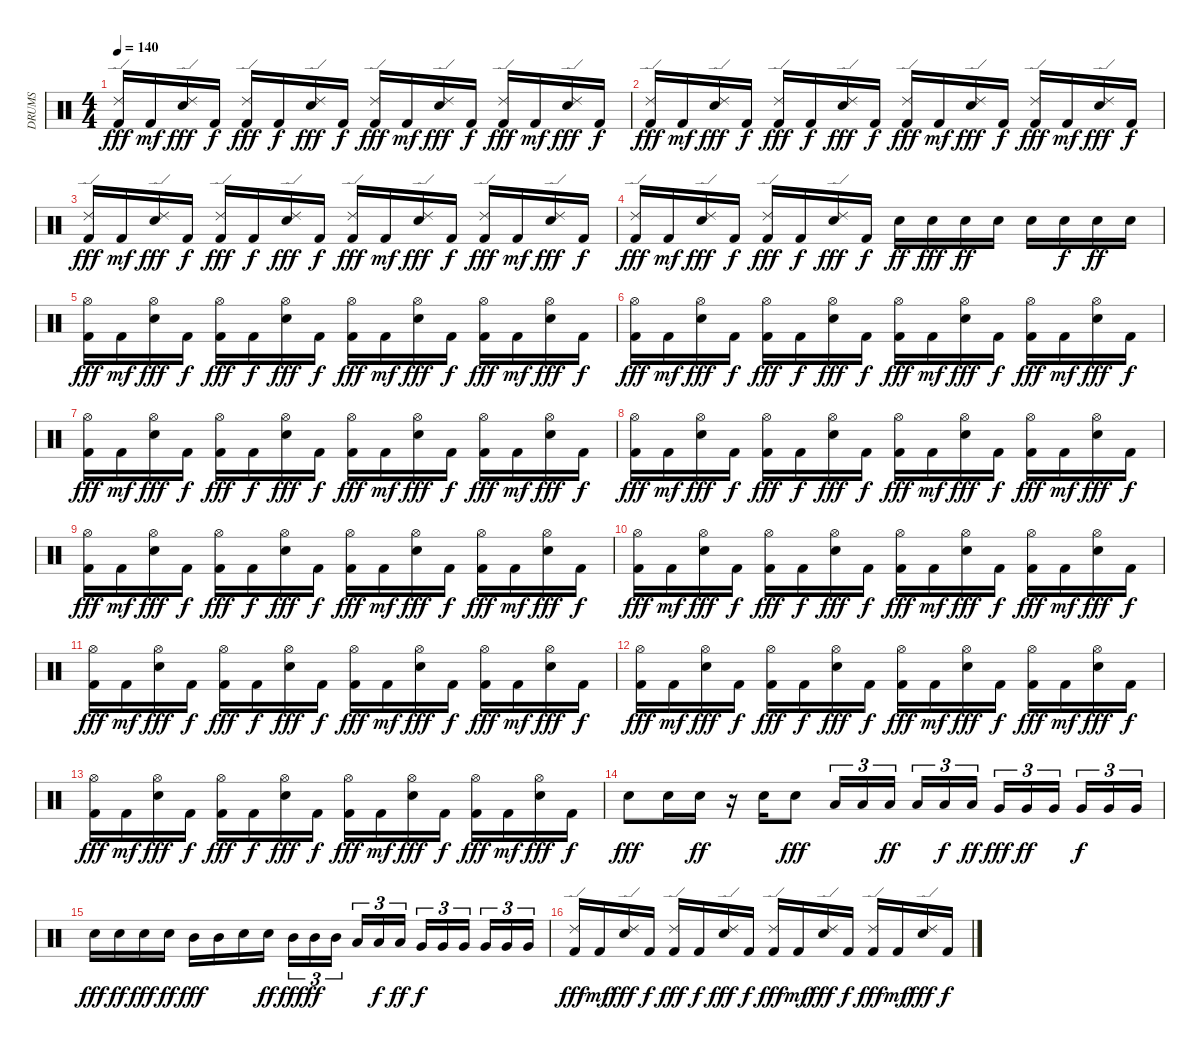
\track ("DRUMS" "DRUMS") {instrument percussion}
\staff {score}
\articulation defaults
\ts (4 4)
\tempo 140
\clef neutral
\ks c
("Ride (edge) 2" "Kick (hit) 2").16{dy fff} "Kick (hit) 2".16{dy mf} ("Ride (edge) 2" "Electric Snare (hit)").16{dy fff} "Kick (hit) 2".16{dy f} ("Ride (edge) 2" "Kick (hit) 2").16{dy fff} "Kick (hit) 2".16{dy f} ("Ride (edge) 2" "Electric Snare (hit)").16{dy fff} "Kick (hit) 2".16{dy f} ("Ride (edge) 2" "Kick (hit) 2").16{dy fff} "Kick (hit) 2".16{dy mf} ("Ride (edge) 2" "Electric Snare (hit)").16{dy fff} "Kick (hit) 2".16{dy f} ("Ride (edge) 2" "Kick (hit) 2").16{dy fff} "Kick (hit) 2".16{dy mf} ("Electric Snare (hit)" "Ride (edge) 2").16{dy fff} "Kick (hit) 2".16{dy f} |
("Ride (edge) 2" "Kick (hit) 2").16{dy fff} "Kick (hit) 2".16{dy mf} ("Ride (edge) 2" "Electric Snare (hit)").16{dy fff} "Kick (hit) 2".16{dy f} ("Ride (edge) 2" "Kick (hit) 2").16{dy fff} "Kick (hit) 2".16{dy f} ("Ride (edge) 2" "Electric Snare (hit)").16{dy fff} "Kick (hit) 2".16{dy f} ("Ride (edge) 2" "Kick (hit) 2").16{dy fff} "Kick (hit) 2".16{dy mf} ("Ride (edge) 2" "Electric Snare (hit)").16{dy fff} "Kick (hit) 2".16{dy f} ("Ride (edge) 2" "Kick (hit) 2").16{dy fff} "Kick (hit) 2".16{dy mf} ("Electric Snare (hit)" "Ride (edge) 2").16{dy fff} "Kick (hit) 2".16{dy f} |
("Ride (edge) 2" "Kick (hit) 2").16{dy fff} "Kick (hit) 2".16{dy mf} ("Ride (edge) 2" "Electric Snare (hit)").16{dy fff} "Kick (hit) 2".16{dy f} ("Ride (edge) 2" "Kick (hit) 2").16{dy fff} "Kick (hit) 2".16{dy f} ("Ride (edge) 2" "Electric Snare (hit)").16{dy fff} "Kick (hit) 2".16{dy f} ("Ride (edge) 2" "Kick (hit) 2").16{dy fff} "Kick (hit) 2".16{dy mf} ("Ride (edge) 2" "Electric Snare (hit)").16{dy fff} "Kick (hit) 2".16{dy f} ("Ride (edge) 2" "Kick (hit) 2").16{dy fff} "Kick (hit) 2".16{dy mf} ("Electric Snare (hit)" "Ride (edge) 2").16{dy fff} "Kick (hit) 2".16{dy f} |
("Ride (edge) 2" "Kick (hit) 2").16{dy fff} "Kick (hit) 2".16{dy mf} ("Ride (edge) 2" "Electric Snare (hit)").16{dy fff} "Kick (hit) 2".16{dy f} ("Ride (edge) 2" "Kick (hit) 2").16{dy fff} "Kick (hit) 2".16{dy f} ("Ride (edge) 2" "Electric Snare (hit)").16{dy fff} "Kick (hit) 2".16{dy f} "Electric Snare (hit)".16{dy ff} "Electric Snare (hit)".16{dy fff} "Electric Snare (hit)".16{dy ff} "Electric Snare (hit)".16 "Electric Snare (hit)".16 "Electric Snare (hit)".16{dy f} "Electric Snare (hit)".16{dy ff} "Electric Snare (hit)".16 |
("Hi-Hat (open)" "Kick (hit) 2").16{dy fff} "Kick (hit) 2".16{dy mf} ("Hi-Hat (open)" "Electric Snare (hit)").16{dy fff} "Kick (hit) 2".16{dy f} ("Hi-Hat (open)" "Kick (hit) 2").16{dy fff} "Kick (hit) 2".16{dy f} ("Hi-Hat (open)" "Electric Snare (hit)").16{dy fff} "Kick (hit) 2".16{dy f} ("Hi-Hat (open)" "Kick (hit) 2").16{dy fff} "Kick (hit) 2".16{dy mf} ("Hi-Hat (open)" "Electric Snare (hit)").16{dy fff} "Kick (hit) 2".16{dy f} ("Hi-Hat (open)" "Kick (hit) 2").16{dy fff} "Kick (hit) 2".16{dy mf} ("Electric Snare (hit)" "Hi-Hat (open)").16{dy fff} "Kick (hit) 2".16{dy f} |
("Hi-Hat (open)" "Kick (hit) 2").16{dy fff} "Kick (hit) 2".16{dy mf} ("Hi-Hat (open)" "Electric Snare (hit)").16{dy fff} "Kick (hit) 2".16{dy f} ("Hi-Hat (open)" "Kick (hit) 2").16{dy fff} "Kick (hit) 2".16{dy f} ("Hi-Hat (open)" "Electric Snare (hit)").16{dy fff} "Kick (hit) 2".16{dy f} ("Hi-Hat (open)" "Kick (hit) 2").16{dy fff} "Kick (hit) 2".16{dy mf} ("Hi-Hat (open)" "Electric Snare (hit)").16{dy fff} "Kick (hit) 2".16{dy f} ("Hi-Hat (open)" "Kick (hit) 2").16{dy fff} "Kick (hit) 2".16{dy mf} ("Electric Snare (hit)" "Hi-Hat (open)").16{dy fff} "Kick (hit) 2".16{dy f} |
("Hi-Hat (open)" "Kick (hit) 2").16{dy fff} "Kick (hit) 2".16{dy mf} ("Hi-Hat (open)" "Electric Snare (hit)").16{dy fff} "Kick (hit) 2".16{dy f} ("Hi-Hat (open)" "Kick (hit) 2").16{dy fff} "Kick (hit) 2".16{dy f} ("Hi-Hat (open)" "Electric Snare (hit)").16{dy fff} "Kick (hit) 2".16{dy f} ("Hi-Hat (open)" "Kick (hit) 2").16{dy fff} "Kick (hit) 2".16{dy mf} ("Hi-Hat (open)" "Electric Snare (hit)").16{dy fff} "Kick (hit) 2".16{dy f} ("Hi-Hat (open)" "Kick (hit) 2").16{dy fff} "Kick (hit) 2".16{dy mf} ("Electric Snare (hit)" "Hi-Hat (open)").16{dy fff} "Kick (hit) 2".16{dy f} |
("Hi-Hat (open)" "Kick (hit) 2").16{dy fff} "Kick (hit) 2".16{dy mf} ("Hi-Hat (open)" "Electric Snare (hit)").16{dy fff} "Kick (hit) 2".16{dy f} ("Hi-Hat (open)" "Kick (hit) 2").16{dy fff} "Kick (hit) 2".16{dy f} ("Hi-Hat (open)" "Electric Snare (hit)").16{dy fff} "Kick (hit) 2".16{dy f} ("Hi-Hat (open)" "Kick (hit) 2").16{dy fff} "Kick (hit) 2".16{dy mf} ("Hi-Hat (open)" "Electric Snare (hit)").16{dy fff} "Kick (hit) 2".16{dy f} ("Hi-Hat (open)" "Kick (hit) 2").16{dy fff} "Kick (hit) 2".16{dy mf} ("Electric Snare (hit)" "Hi-Hat (open)").16{dy fff} "Kick (hit) 2".16{dy f} |
("Hi-Hat (open)" "Kick (hit) 2").16{dy fff} "Kick (hit) 2".16{dy mf} ("Hi-Hat (open)" "Electric Snare (hit)").16{dy fff} "Kick (hit) 2".16{dy f} ("Hi-Hat (open)" "Kick (hit) 2").16{dy fff} "Kick (hit) 2".16{dy f} ("Hi-Hat (open)" "Electric Snare (hit)").16{dy fff} "Kick (hit) 2".16{dy f} ("Hi-Hat (open)" "Kick (hit) 2").16{dy fff} "Kick (hit) 2".16{dy mf} ("Hi-Hat (open)" "Electric Snare (hit)").16{dy fff} "Kick (hit) 2".16{dy f} ("Hi-Hat (open)" "Kick (hit) 2").16{dy fff} "Kick (hit) 2".16{dy mf} ("Electric Snare (hit)" "Hi-Hat (open)").16{dy fff} "Kick (hit) 2".16{dy f} |
("Hi-Hat (open)" "Kick (hit) 2").16{dy fff} "Kick (hit) 2".16{dy mf} ("Hi-Hat (open)" "Electric Snare (hit)").16{dy fff} "Kick (hit) 2".16{dy f} ("Hi-Hat (open)" "Kick (hit) 2").16{dy fff} "Kick (hit) 2".16{dy f} ("Hi-Hat (open)" "Electric Snare (hit)").16{dy fff} "Kick (hit) 2".16{dy f} ("Hi-Hat (open)" "Kick (hit) 2").16{dy fff} "Kick (hit) 2".16{dy mf} ("Hi-Hat (open)" "Electric Snare (hit)").16{dy fff} "Kick (hit) 2".16{dy f} ("Hi-Hat (open)" "Kick (hit) 2").16{dy fff} "Kick (hit) 2".16{dy mf} ("Electric Snare (hit)" "Hi-Hat (open)").16{dy fff} "Kick (hit) 2".16{dy f} |
("Hi-Hat (open)" "Kick (hit) 2").16{dy fff} "Kick (hit) 2".16{dy mf} ("Hi-Hat (open)" "Electric Snare (hit)").16{dy fff} "Kick (hit) 2".16{dy f} ("Hi-Hat (open)" "Kick (hit) 2").16{dy fff} "Kick (hit) 2".16{dy f} ("Hi-Hat (open)" "Electric Snare (hit)").16{dy fff} "Kick (hit) 2".16{dy f} ("Hi-Hat (open)" "Kick (hit) 2").16{dy fff} "Kick (hit) 2".16{dy mf} ("Hi-Hat (open)" "Electric Snare (hit)").16{dy fff} "Kick (hit) 2".16{dy f} ("Hi-Hat (open)" "Kick (hit) 2").16{dy fff} "Kick (hit) 2".16{dy mf} ("Electric Snare (hit)" "Hi-Hat (open)").16{dy fff} "Kick (hit) 2".16{dy f} |
("Hi-Hat (open)" "Kick (hit) 2").16{dy fff} "Kick (hit) 2".16{dy mf} ("Hi-Hat (open)" "Electric Snare (hit)").16{dy fff} "Kick (hit) 2".16{dy f} ("Hi-Hat (open)" "Kick (hit) 2").16{dy fff} "Kick (hit) 2".16{dy f} ("Hi-Hat (open)" "Electric Snare (hit)").16{dy fff} "Kick (hit) 2".16{dy f} ("Hi-Hat (open)" "Kick (hit) 2").16{dy fff} "Kick (hit) 2".16{dy mf} ("Hi-Hat (open)" "Electric Snare (hit)").16{dy fff} "Kick (hit) 2".16{dy f} ("Hi-Hat (open)" "Kick (hit) 2").16{dy fff} "Kick (hit) 2".16{dy mf} ("Electric Snare (hit)" "Hi-Hat (open)").16{dy fff} "Kick (hit) 2".16{dy f} |
("Hi-Hat (open)" "Kick (hit) 2").16{dy fff} "Kick (hit) 2".16{dy mf} ("Hi-Hat (open)" "Electric Snare (hit)").16{dy fff} "Kick (hit) 2".16{dy f} ("Hi-Hat (open)" "Kick (hit) 2").16{dy fff} "Kick (hit) 2".16{dy f} ("Hi-Hat (open)" "Electric Snare (hit)").16{dy fff} "Kick (hit) 2".16{dy f} ("Hi-Hat (open)" "Kick (hit) 2").16{dy fff} "Kick (hit) 2".16{dy mf} ("Hi-Hat (open)" "Electric Snare (hit)").16{dy fff} "Kick (hit) 2".16{dy f} ("Hi-Hat (open)" "Kick (hit) 2").16{dy fff} "Kick (hit) 2".16{dy mf} ("Electric Snare (hit)" "Hi-Hat (open)").16{dy fff} "Kick (hit) 2".16{dy f} |
"Electric Snare (hit)".8{dy fff} "Electric Snare (hit)".16 "Electric Snare (hit)".16{dy ff} r.16 "Electric Snare (hit)".16 "Electric Snare (hit)".8{dy fff} "Low Tom (hit)".16{tu (3 2)} "Low Tom (hit)".16{tu (3 2)} "Low Tom (hit)".16{tu (3 2) dy ff} "Low Tom (hit)".16{tu (3 2)} "Low Tom (hit)".16{tu (3 2) dy f} "Low Tom (hit)".16{tu (3 2) dy ff} "Very Low Tom (hit)".16{tu (3 2) dy fff} "Very Low Tom (hit)".16{tu (3 2) dy ff} "Very Low Tom (hit)".16{tu (3 2)} "Very Low Tom (hit)".16{tu (3 2) dy f} "Very Low Tom (hit)".16{tu (3 2)} "Very Low Tom (hit)".16{tu (3 2)} |
"Electric Snare (hit)".16{dy fff} "Electric Snare (hit)".16{dy ff} "Electric Snare (hit)".16{dy fff} "Electric Snare (hit)".16{dy ff} "Mid Tom (hit)".16{dy fff} "Mid Tom (hit)".16 "Electric Snare (hit)".16 "Electric Snare (hit)".16{dy ff} "Mid Tom (hit)".16{tu (3 2) dy fff} "Mid Tom (hit)".16{tu (3 2) dy ff} "Mid Tom (hit)".16{tu (3 2)} "Low Tom (hit)".16{tu (3 2)} "Low Tom (hit)".16{tu (3 2) dy f} "Low Tom (hit)".16{tu (3 2) dy ff} "Very Low Tom (hit)".16{tu (3 2) dy f} "Very Low Tom (hit)".16{tu (3 2)} "Very Low Tom (hit)".16{tu (3 2)} "Very Low Tom (hit)".16{tu (3 2)} "Very Low Tom (hit)".16{tu (3 2)} "Very Low Tom (hit)".16{tu (3 2)} |
("Ride (edge) 2" "Kick (hit) 2").16{dy fff} "Kick (hit) 2".16{dy mf} ("Ride (edge) 2" "Electric Snare (hit)").16{dy fff} "Kick (hit) 2".16{dy f} ("Ride (edge) 2" "Kick (hit) 2").16{dy fff} "Kick (hit) 2".16{dy f} ("Ride (edge) 2" "Electric Snare (hit)").16{dy fff} "Kick (hit) 2".16{dy f} ("Ride (edge) 2" "Kick (hit) 2").16{dy fff} "Kick (hit) 2".16{dy mf} ("Ride (edge) 2" "Electric Snare (hit)").16{dy fff} "Kick (hit) 2".16{dy f} ("Ride (edge) 2" "Kick (hit) 2").16{dy fff} "Kick (hit) 2".16{dy mf} ("Electric Snare (hit)" "Ride (edge) 2").16{dy fff} "Kick (hit) 2".16{dy f}
